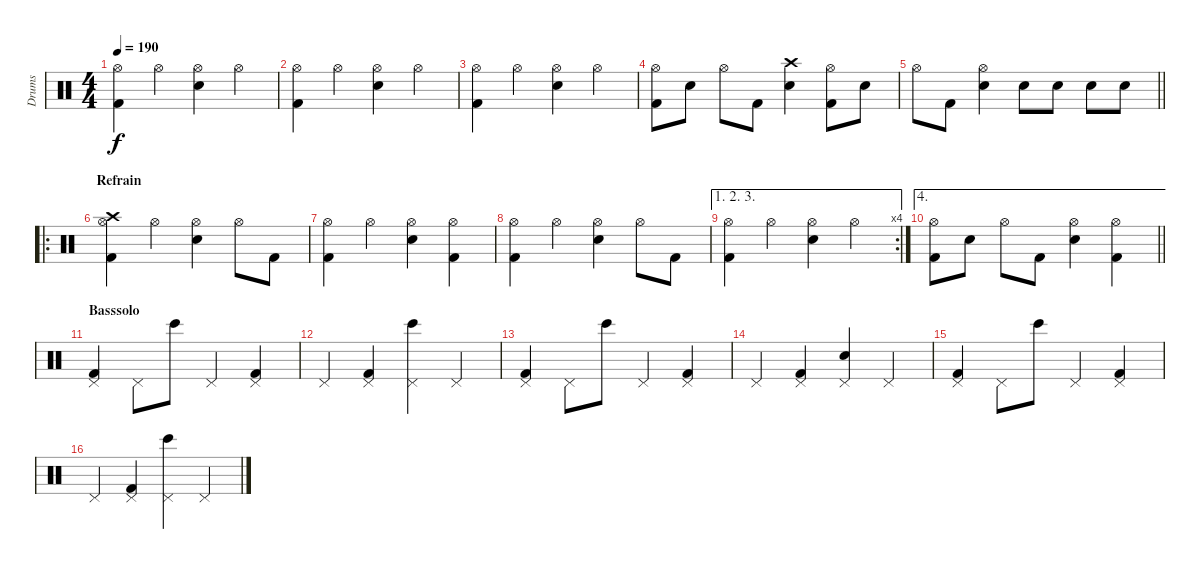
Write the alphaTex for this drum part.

\track ("Drums" "Drums") {instrument percussion}
\staff {score}
\articulation defaults
\ts (4 4)
\tempo 190
\clef neutral
\ks c
("Hi-Hat (open)" "Kick (hit) 2").4{dy f} "Hi-Hat (open)".4 ("Hi-Hat (open)" "Snare (hit) 2").4 "Hi-Hat (open)".4 |
("Hi-Hat (open)" "Kick (hit) 2").4 "Hi-Hat (open)".4 ("Hi-Hat (open)" "Snare (hit) 2").4 "Hi-Hat (open)".4 |
("Hi-Hat (open)" "Kick (hit) 2").4 "Hi-Hat (open)".4 ("Hi-Hat (open)" "Snare (hit) 2").4 "Hi-Hat (open)".4 |
("Hi-Hat (open)" "Kick (hit) 2").8 "Snare (hit) 2".8 "Hi-Hat (open)".8 "Kick (hit) 2".8 ("Crash high (hit)" "Snare (hit) 2").4 ("Hi-Hat (open)" "Kick (hit) 2").8 "Snare (hit) 2".8 |
\barLineRight lightlight "Hi-Hat (open)".8 "Kick (hit) 2".8
("Hi-Hat (open)" "Snare (hit) 2").4 "Snare (hit) 2".8 "Snare (hit) 2".8 "Snare (hit) 2".8 "Snare (hit) 2".8 |
\ro
\section ("" "Refrain")
("Crash high (hit)" "Hi-Hat (open)" "Kick (hit) 2").4 "Hi-Hat (open)".4 ("Hi-Hat (open)" "Snare (hit) 2").4 "Hi-Hat (open)".8 "Kick (hit) 2".8 |
("Hi-Hat (open)" "Kick (hit) 2").4 "Hi-Hat (open)".4 ("Hi-Hat (open)" "Snare (hit) 2").4 ("Hi-Hat (open)" "Kick (hit) 2").4 |
("Hi-Hat (open)" "Kick (hit) 2").4 "Hi-Hat (open)".4 ("Hi-Hat (open)" "Snare (hit) 2").4 "Hi-Hat (open)".8 "Kick (hit) 2".8 |
\ae (1 2 3)
\rc 4
("Hi-Hat (open)" "Kick (hit) 2").4 "Hi-Hat (open)".4 ("Hi-Hat (open)" "Snare (hit) 2").4 "Hi-Hat (open)".4 |
\ae 4
\barLineRight lightlight
("Hi-Hat (open)" "Kick (hit) 2").8 "Snare (hit) 2".8 "Hi-Hat (open)".8 "Kick (hit) 2".8 ("Hi-Hat (open)" "Snare (hit) 2").4 ("Hi-Hat (open)" "Kick (hit) 2").4 |
\section ("" "Basssolo")
("Pedal Hi-Hat (hit)" "Kick (hit) 2").4 "Pedal Hi-Hat (hit)".8 "Bongo High (hit)".8 "Pedal Hi-Hat (hit)".4 ("Pedal Hi-Hat (hit)" "Kick (hit) 2").4 |
"Pedal Hi-Hat (hit)".4 ("Pedal Hi-Hat (hit)" "Kick (hit) 2").4 ("Pedal Hi-Hat (hit)" "Bongo High (hit)").4 "Pedal Hi-Hat (hit)".4 |
("Pedal Hi-Hat (hit)" "Kick (hit) 2").4 "Pedal Hi-Hat (hit)".8 "Bongo High (hit)".8 "Pedal Hi-Hat (hit)".4 ("Pedal Hi-Hat (hit)" "Kick (hit) 2").4 |
"Pedal Hi-Hat (hit)".4 ("Pedal Hi-Hat (hit)" "Kick (hit) 2").4 ("Pedal Hi-Hat (hit)" "Hand Clap (hit)").4 "Pedal Hi-Hat (hit)".4 |
("Pedal Hi-Hat (hit)" "Kick (hit) 2").4 "Pedal Hi-Hat (hit)".8 "Bongo High (hit)".8 "Pedal Hi-Hat (hit)".4 ("Pedal Hi-Hat (hit)" "Kick (hit) 2").4 |
"Pedal Hi-Hat (hit)".4 ("Pedal Hi-Hat (hit)" "Kick (hit) 2").4 ("Pedal Hi-Hat (hit)" "Bongo High (hit)").4 "Pedal Hi-Hat (hit)".4
